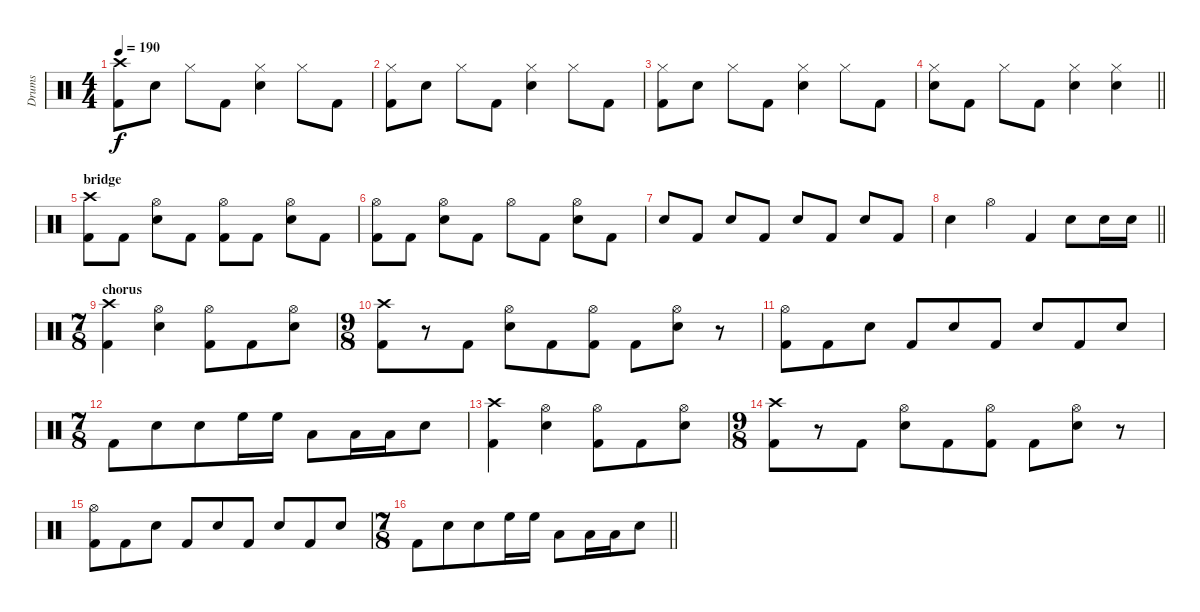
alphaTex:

\track ("Drums" "Drums") {instrument percussion}
\staff {score}
\articulation defaults
\ts (4 4)
\tempo 190
\clef neutral
\ks c
("Crash high (hit)" "Kick (hit) 2").8{dy f} "Snare (hit) 2".8 "Hi-Hat (closed)".8 "Kick (hit) 2".8 ("Hi-Hat (closed)" "Snare (hit) 2").4 "Hi-Hat (closed)".8 "Kick (hit) 2".8 |
("Hi-Hat (closed)" "Kick (hit) 2").8 "Snare (hit) 2".8 "Hi-Hat (closed)".8 "Kick (hit) 2".8 ("Hi-Hat (closed)" "Snare (hit) 2").4 "Hi-Hat (closed)".8 "Kick (hit) 2".8 |
("Hi-Hat (closed)" "Kick (hit) 2").8 "Snare (hit) 2".8 "Hi-Hat (closed)".8 "Kick (hit) 2".8 ("Hi-Hat (closed)" "Snare (hit) 2").4 "Hi-Hat (closed)".8 "Kick (hit) 2".8 |
\barLineRight lightlight
("Hi-Hat (closed)" "Snare (hit) 2").8 "Kick (hit) 2".8 "Hi-Hat (closed)".8 "Kick (hit) 2".8 ("Hi-Hat (closed)" "Snare (hit) 2").4 ("Hi-Hat (closed)" "Snare (hit) 2").4 |
\section ("" "bridge")
("Crash high (hit)" "Kick (hit) 2").8 "Kick (hit) 2".8 ("Hi-Hat (open)" "Snare (hit) 2").8 "Kick (hit) 2".8 ("Hi-Hat (open)" "Kick (hit) 2").8 "Kick (hit) 2".8 ("Hi-Hat (open)" "Snare (hit) 2").8 "Kick (hit) 2".8 |
("Hi-Hat (open)" "Kick (hit) 2").8 "Kick (hit) 2".8 ("Hi-Hat (open)" "Snare (hit) 2").8 "Kick (hit) 2".8 "Hi-Hat (open)".8 "Kick (hit) 2".8 ("Hi-Hat (open)" "Snare (hit) 2").8 "Kick (hit) 2".8 |
"Snare (hit) 2".8 "Kick (hit) 2".8 "Snare (hit) 2".8 "Kick (hit) 2".8 "Snare (hit) 2".8 "Kick (hit) 2".8 "Snare (hit) 2".8 "Kick (hit) 2".8 |
\barLineRight lightlight "Snare (hit) 2".4 "Hi-Hat (open)".4 "Kick (hit) 2".4 "Snare (hit) 2".8 "Snare (hit) 2".16 "Snare (hit) 2".16
|
\ts (7 8)
\section ("" "chorus")
("Crash high (hit)" "Kick (hit) 2").4 ("Hi-Hat (open)" "Snare (hit) 2").4 ("Hi-Hat (open)" "Kick (hit) 2").8 "Kick (hit) 2".8 ("Hi-Hat (open)" "Snare (hit) 2").8 |
\ts (9 8)
("Crash high (hit)" "Kick (hit) 2").8 r.8 "Kick (hit) 2".8 ("Hi-Hat (open)" "Snare (hit) 2").8 "Kick (hit) 2".8 ("Hi-Hat (open)" "Kick (hit) 2").8 "Kick (hit) 2".8 ("Hi-Hat (open)" "Snare (hit) 2").8 r.8 |
("Hi-Hat (open)" "Kick (hit) 2").8 "Kick (hit) 2".8 "Snare (hit) 2".8 "Kick (hit) 2".8 "Snare (hit) 2".8 "Kick (hit) 2".8 "Snare (hit) 2".8 "Kick (hit) 2".8 "Snare (hit) 2".8 |
\ts (7 8)
"Kick (hit) 2".8 "Snare (hit) 2".8 "Snare (hit) 2".8 "High Floor Tom (hit)".16 "High Floor Tom (hit)".16 "Low Tom (hit)".8 "Low Tom (hit)".16 "Low Tom (hit)".16 "Snare (hit) 2".8 |
("Crash high (hit)" "Kick (hit) 2").4 ("Hi-Hat (open)" "Snare (hit) 2").4 ("Hi-Hat (open)" "Kick (hit) 2").8 "Kick (hit) 2".8 ("Hi-Hat (open)" "Snare (hit) 2").8 |
\ts (9 8)
("Crash high (hit)" "Kick (hit) 2").8 r.8 "Kick (hit) 2".8 ("Hi-Hat (open)" "Snare (hit) 2").8 "Kick (hit) 2".8 ("Hi-Hat (open)" "Kick (hit) 2").8 "Kick (hit) 2".8 ("Hi-Hat (open)" "Snare (hit) 2").8 r.8 |
("Hi-Hat (open)" "Kick (hit) 2").8 "Kick (hit) 2".8 "Snare (hit) 2".8 "Kick (hit) 2".8 "Snare (hit) 2".8 "Kick (hit) 2".8 "Snare (hit) 2".8 "Kick (hit) 2".8 "Snare (hit) 2".8 |
\ts (7 8)
\barLineRight lightlight "Kick (hit) 2".8 "Snare (hit) 2".8 "Snare (hit) 2".8 "High Floor Tom (hit)".16 "High Floor Tom (hit)".16 "Low Tom (hit)".8 "Low Tom (hit)".16 "Low Tom (hit)".16 "Snare (hit) 2".8
